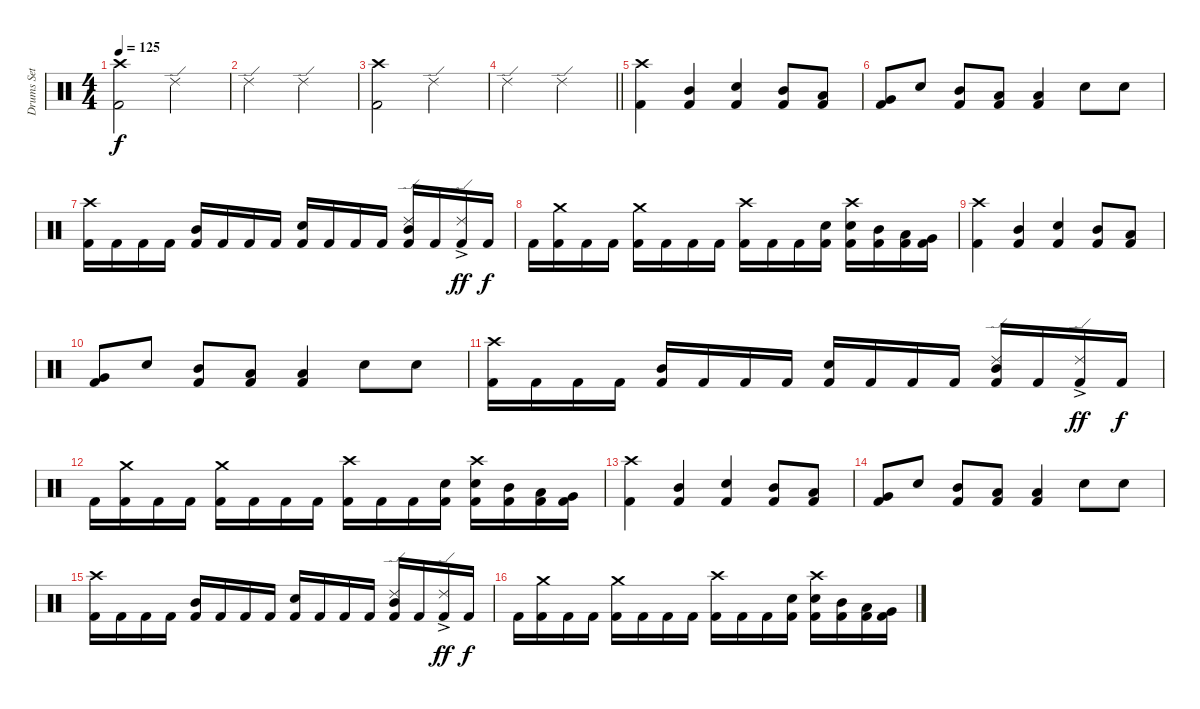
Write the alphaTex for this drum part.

\track ("Drums Set" "Drums Set") {instrument percussion}
\staff {score}
\articulation defaults
\ts (4 4)
\tempo 125
\clef neutral
\ks c
("Crash high (hit)" "Kick (hit) 2").2{dy f} "Ride (edge) 2".2 |
"Ride (edge) 2".2 "Ride (edge) 2".2 |
("Crash high (hit)" "Kick (hit) 2").2 "Ride (edge) 2".2 |
\barLineRight lightlight "Ride (edge) 2".2 "Ride (edge) 2".2
|
("Crash high (hit)" "Kick (hit) 2").4 ("Mid Tom (hit)" "Kick (hit) 2").4 ("Snare (hit) 2" "Kick (hit) 2").4 ("Mid Tom (hit)" "Kick (hit) 2").8 ("Low Tom (hit)" "Kick (hit) 2").8 |
("Very Low Tom (hit)" "Kick (hit) 2").8 "Snare (hit) 2".8 ("Mid Tom (hit)" "Kick (hit) 2").8 ("Low Tom (hit)" "Kick (hit) 2").8 ("Low Floor Tom (hit)" "Kick (hit) 2").4 "Snare (hit) 2".8 "Snare (hit) 2".8 |
("Crash high (hit)" "Kick (hit) 2").16 "Kick (hit) 2".16 "Kick (hit) 2".16 "Kick (hit) 2".16 ("Mid Tom (hit)" "Kick (hit) 2").16 "Kick (hit) 2".16 "Kick (hit) 2".16 "Kick (hit) 2".16 ("Snare (hit) 2" "Kick (hit) 2").16 "Kick (hit) 2".16 "Kick (hit) 2".16 "Kick (hit) 2".16 ("Ride (edge) 2" "Mid Tom (hit)" "Kick (hit) 2").16 "Kick (hit) 2".16 ("Ride (edge) 2"{ac} "Kick (hit) 2").16{dy ff} "Kick (hit) 2".16{dy f} |
"Kick (hit) 2".16 ("Crash medium (hit)" "Kick (hit) 2").16 "Kick (hit) 2".16 "Kick (hit) 2".16 ("Crash medium (hit)" "Kick (hit) 2").16 "Kick (hit) 2".16 "Kick (hit) 2".16 "Kick (hit) 2".16 ("Crash high (hit)" "Kick (hit) 2").16 "Kick (hit) 2".16 "Kick (hit) 2".16 ("Snare (hit) 2" "Kick (hit) 2").16 ("Crash high (hit)" "Snare (hit) 2" "Kick (hit) 2").16 ("Mid Tom (hit)" "Kick (hit) 2").16 ("Low Tom (hit)" "Kick (hit) 2").16 ("Very Low Tom (hit)" "Kick (hit) 2").16 |
("Crash high (hit)" "Kick (hit) 2").4 ("Mid Tom (hit)" "Kick (hit) 2").4 ("Snare (hit) 2" "Kick (hit) 2").4 ("Mid Tom (hit)" "Kick (hit) 2").8 ("Low Tom (hit)" "Kick (hit) 2").8 |
("Very Low Tom (hit)" "Kick (hit) 2").8 "Snare (hit) 2".8 ("Mid Tom (hit)" "Kick (hit) 2").8 ("Low Tom (hit)" "Kick (hit) 2").8 ("Low Floor Tom (hit)" "Kick (hit) 2").4 "Snare (hit) 2".8 "Snare (hit) 2".8 |
("Crash high (hit)" "Kick (hit) 2").16 "Kick (hit) 2".16 "Kick (hit) 2".16 "Kick (hit) 2".16 ("Mid Tom (hit)" "Kick (hit) 2").16 "Kick (hit) 2".16 "Kick (hit) 2".16 "Kick (hit) 2".16 ("Snare (hit) 2" "Kick (hit) 2").16 "Kick (hit) 2".16 "Kick (hit) 2".16 "Kick (hit) 2".16 ("Ride (edge) 2" "Mid Tom (hit)" "Kick (hit) 2").16 "Kick (hit) 2".16 ("Ride (edge) 2"{ac} "Kick (hit) 2").16{dy ff} "Kick (hit) 2".16{dy f} |
"Kick (hit) 2".16 ("Crash medium (hit)" "Kick (hit) 2").16 "Kick (hit) 2".16 "Kick (hit) 2".16 ("Crash medium (hit)" "Kick (hit) 2").16 "Kick (hit) 2".16 "Kick (hit) 2".16 "Kick (hit) 2".16 ("Crash high (hit)" "Kick (hit) 2").16 "Kick (hit) 2".16 "Kick (hit) 2".16 ("Snare (hit) 2" "Kick (hit) 2").16 ("Crash high (hit)" "Snare (hit) 2" "Kick (hit) 2").16 ("Mid Tom (hit)" "Kick (hit) 2").16 ("Low Tom (hit)" "Kick (hit) 2").16 ("Very Low Tom (hit)" "Kick (hit) 2").16 |
("Crash high (hit)" "Kick (hit) 2").4 ("Mid Tom (hit)" "Kick (hit) 2").4 ("Snare (hit) 2" "Kick (hit) 2").4 ("Mid Tom (hit)" "Kick (hit) 2").8 ("Low Tom (hit)" "Kick (hit) 2").8 |
("Very Low Tom (hit)" "Kick (hit) 2").8 "Snare (hit) 2".8 ("Mid Tom (hit)" "Kick (hit) 2").8 ("Low Tom (hit)" "Kick (hit) 2").8 ("Low Floor Tom (hit)" "Kick (hit) 2").4 "Snare (hit) 2".8 "Snare (hit) 2".8 |
("Crash high (hit)" "Kick (hit) 2").16 "Kick (hit) 2".16 "Kick (hit) 2".16 "Kick (hit) 2".16 ("Mid Tom (hit)" "Kick (hit) 2").16 "Kick (hit) 2".16 "Kick (hit) 2".16 "Kick (hit) 2".16 ("Snare (hit) 2" "Kick (hit) 2").16 "Kick (hit) 2".16 "Kick (hit) 2".16 "Kick (hit) 2".16 ("Ride (edge) 2" "Mid Tom (hit)" "Kick (hit) 2").16 "Kick (hit) 2".16 ("Ride (edge) 2"{ac} "Kick (hit) 2").16{dy ff} "Kick (hit) 2".16{dy f} |
"Kick (hit) 2".16 ("Crash medium (hit)" "Kick (hit) 2").16 "Kick (hit) 2".16 "Kick (hit) 2".16 ("Crash medium (hit)" "Kick (hit) 2").16 "Kick (hit) 2".16 "Kick (hit) 2".16 "Kick (hit) 2".16 ("Crash high (hit)" "Kick (hit) 2").16 "Kick (hit) 2".16 "Kick (hit) 2".16 ("Snare (hit) 2" "Kick (hit) 2").16 ("Crash high (hit)" "Snare (hit) 2" "Kick (hit) 2").16 ("Mid Tom (hit)" "Kick (hit) 2").16 ("Low Tom (hit)" "Kick (hit) 2").16 ("Very Low Tom (hit)" "Kick (hit) 2").16
